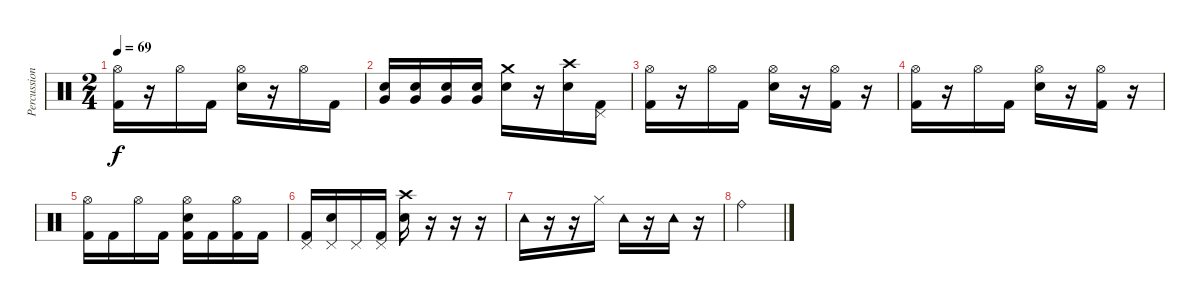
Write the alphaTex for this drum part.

\track ("Percussions" "Percussion") {instrument percussion}
\staff {score}
\articulation defaults
\ts (2 4)
\tempo 69
\clef neutral
\ks c
("Hi-Hat (open)" "Kick (hit) 2").16{dy f} r.16 "Hi-Hat (open)".16 "Kick (hit) 2".16 ("Hi-Hat (open)" "Electric Snare (hit)").16 r.16 "Hi-Hat (open)".16 "Kick (hit) 2".16 |
("Very Low Tom (hit)" "Electric Snare (hit)").16 ("Very Low Tom (hit)" "Electric Snare (hit)").16 ("Very Low Tom (hit)" "Electric Snare (hit)").16 ("Very Low Tom (hit)" "Electric Snare (hit)").16 ("Crash medium (hit)" "Electric Snare (hit)").16 r.16 ("Crash high (hit)" "Electric Snare (hit)").16 ("Pedal Hi-Hat (hit)" "Kick (hit) 2").16 |
("Hi-Hat (open)" "Kick (hit) 2").16 r.16 "Hi-Hat (open)".16 "Kick (hit) 2".16 ("Hi-Hat (open)" "Electric Snare (hit)").16 r.16 ("Hi-Hat (open)" "Kick (hit) 2").16 r.16 |
("Hi-Hat (open)" "Kick (hit) 2").16 r.16 "Hi-Hat (open)".16 "Kick (hit) 2".16 ("Hi-Hat (open)" "Electric Snare (hit)").16 r.16 ("Hi-Hat (open)" "Kick (hit) 2").16 r.16 |
("Hi-Hat (open)" "Kick (hit) 2").16 "Kick (hit) 2".16 "Hi-Hat (open)".16 "Kick (hit) 2".16 ("Hi-Hat (open)" "Electric Snare (hit)" "Kick (hit) 2").16 "Kick (hit) 2".16 ("Hi-Hat (open)" "Kick (hit) 2").16 "Kick (hit) 2".16 |
("Pedal Hi-Hat (hit)" "Kick (hit) 2").16 ("Pedal Hi-Hat (hit)" "Electric Snare (hit)").16 "Pedal Hi-Hat (hit)".16 ("Pedal Hi-Hat (hit)" "Kick (hit) 2").16 ("Crash high (hit)" "Electric Snare (hit)").16 r.16 r.16 r.16 |
"Tambourine (hit)".16 r.16 r.16 "Hi-Hat (closed)".16 "Tambourine (hit)".16 r.16 "Tambourine (hit)".16 r.16 |
"Ride (bell)".2
